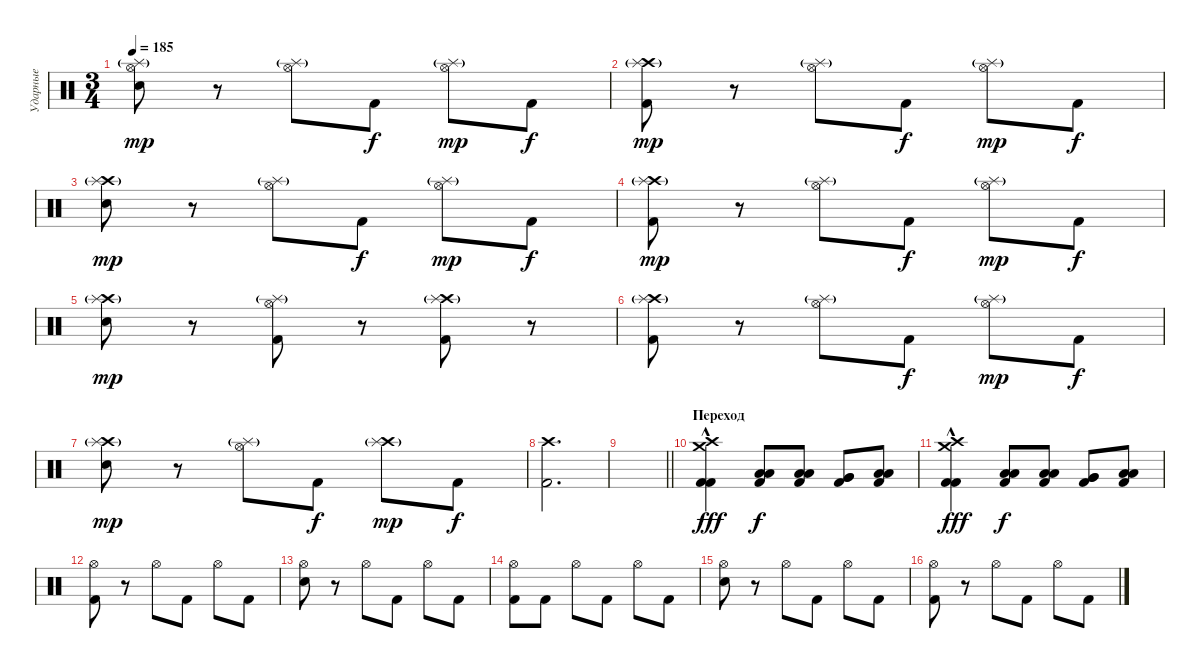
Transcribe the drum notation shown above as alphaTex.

\track ("Ударные" "Ударные") {instrument percussion}
\staff {score}
\articulation defaults
\ts (3 4)
\tempo 185
\clef neutral
\ks c
("Hi-Hat (open)" "Splash (hit)"{g} "Snare (hit) 2").8{dy mp} r.8 ("Hi-Hat (open)" "Splash (hit)"{g}).8 "Kick (hit) 2".8{dy f} ("Hi-Hat (open)" "Splash (hit)"{g}).8{dy mp} "Kick (hit) 2".8{dy f} |
("Crash high (hit)" "Splash (hit)"{g} "Kick (hit) 2").8{dy mp} r.8 ("Hi-Hat (open)" "Splash (hit)"{g}).8 "Kick (hit) 2".8{dy f} ("Hi-Hat (open)" "Splash (hit)"{g}).8{dy mp} "Kick (hit) 2".8{dy f} |
("Crash high (hit)" "Splash (hit)"{g} "Snare (hit) 2").8{dy mp} r.8 ("Hi-Hat (open)" "Splash (hit)"{g}).8 "Kick (hit) 2".8{dy f} ("Hi-Hat (open)" "Splash (hit)"{g}).8{dy mp} "Kick (hit) 2".8{dy f} |
("Crash high (hit)" "Splash (hit)"{g} "Kick (hit) 2").8{dy mp} r.8 ("Hi-Hat (open)" "Splash (hit)"{g}).8 "Kick (hit) 2".8{dy f} ("Hi-Hat (open)" "Splash (hit)"{g}).8{dy mp} "Kick (hit) 2".8{dy f} |
("Crash high (hit)" "Splash (hit)"{g} "Snare (hit) 2").8{dy mp} r.8 ("Hi-Hat (open)" "Splash (hit)"{g} "Kick (hit) 2").8 r.8 ("Crash high (hit)" "Splash (hit)"{g} "Kick (hit) 2").8 r.8 |
("Crash high (hit)" "Splash (hit)"{g} "Kick (hit) 2").8 r.8 ("Hi-Hat (open)" "Splash (hit)"{g}).8 "Kick (hit) 2".8{dy f} ("Hi-Hat (open)" "Splash (hit)"{g}).8{dy mp} "Kick (hit) 2".8{dy f} |
("Crash high (hit)" "Splash (hit)"{g} "Snare (hit) 2").8{dy mp} r.8 ("Hi-Hat (open)" "Splash (hit)"{g}).8 "Kick (hit) 2".8{dy f} ("Crash high (hit)" "Splash (hit)"{g}).8{dy mp} "Kick (hit) 2".8{dy f} |
("Crash high (hit)" "Kick (hit) 2").2{d} |
\barLineRight lightlight
|
\section ("" "Переход")
("Kick (hit) 2"{hac} "Kick (hit) 2"{hac} "Crash medium (hit)" "Crash high (hit)").4{dy fff} ("Kick (hit) 2" "Low Tom (hit)" "Low Tom (hit)").8{dy f} ("Kick (hit) 2" "Low Tom (hit)" "Low Tom (hit)").8 ("Kick (hit) 2" "Very Low Tom (hit)" "Very Low Tom (hit)").8 ("Kick (hit) 2" "Low Floor Tom (hit)" "Low Floor Tom (hit)").8 |
("Kick (hit) 2"{hac} "Kick (hit) 2"{hac} "Crash medium (hit)" "Crash high (hit)").4{dy fff} ("Kick (hit) 2" "Low Tom (hit)" "Low Tom (hit)").8{dy f} ("Kick (hit) 2" "Low Tom (hit)" "Low Tom (hit)").8 ("Kick (hit) 2" "Very Low Tom (hit)" "Very Low Tom (hit)").8 ("Kick (hit) 2" "Low Floor Tom (hit)" "Low Floor Tom (hit)").8 |
("Hi-Hat (open)" "Kick (hit) 2").8 r.8 "Hi-Hat (open)".8 "Kick (hit) 2".8 "Hi-Hat (open)".8 "Kick (hit) 2".8 |
("Hi-Hat (open)" "Snare (hit) 2").8 r.8 "Hi-Hat (open)".8 "Kick (hit) 2".8 "Hi-Hat (open)".8 "Kick (hit) 2".8 |
("Hi-Hat (open)" "Kick (hit) 2").8 "Kick (hit) 2".8 "Hi-Hat (open)".8 "Kick (hit) 2".8 "Hi-Hat (open)".8 "Kick (hit) 2".8 |
("Hi-Hat (open)" "Snare (hit) 2").8 r.8 "Hi-Hat (open)".8 "Kick (hit) 2".8 "Hi-Hat (open)".8 "Kick (hit) 2".8 |
("Hi-Hat (open)" "Kick (hit) 2").8 r.8 "Hi-Hat (open)".8 "Kick (hit) 2".8 "Hi-Hat (open)".8 "Kick (hit) 2".8
